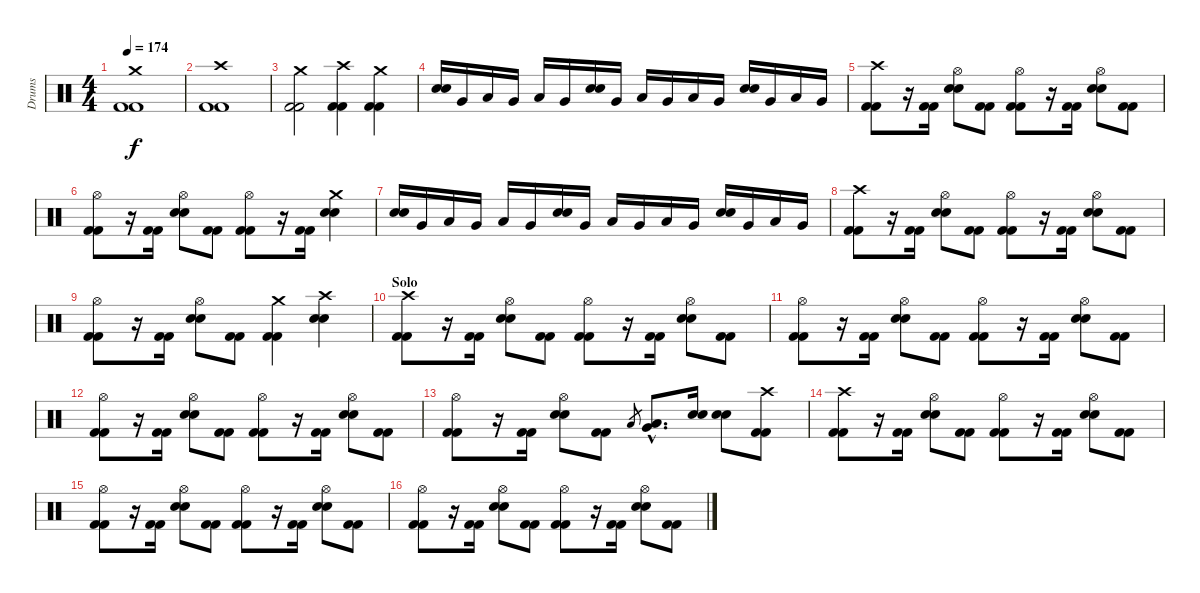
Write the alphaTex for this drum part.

\track ("Drums" "Drums") {instrument percussion}
\staff {score}
\articulation defaults
\ts (4 4)
\tempo 174
\clef neutral
\ks c
("Crash medium (hit)" "Kick (hit) 2" "Kick (hit) 2").1{dy f} |
("Crash high (hit)" "Kick (hit) 2" "Kick (hit) 2").1 |
("Crash medium (hit)" "Kick (hit) 2" "Kick (hit) 2").2 ("Crash high (hit)" "Kick (hit) 2" "Kick (hit) 2").4 ("Crash medium (hit)" "Kick (hit) 2" "Kick (hit) 2").4 |
("Snare (hit) 2" "Snare (hit) 2").16 "Very Low Tom (hit)".16 "Low Tom (hit)".16 "Very Low Tom (hit)".16 "Low Tom (hit)".16 "Very Low Tom (hit)".16 ("Snare (hit) 2" "Snare (hit) 2").16 "Very Low Tom (hit)".16 "Low Tom (hit)".16 "Very Low Tom (hit)".16 "Low Tom (hit)".16 "Very Low Tom (hit)".16 ("Snare (hit) 2" "Snare (hit) 2").16 "Very Low Tom (hit)".16 "Low Tom (hit)".16 "Very Low Tom (hit)".16 |
("Crash high (hit)" "Kick (hit) 2" "Kick (hit) 2").8 r.16 ("Kick (hit) 2" "Kick (hit) 2").16 ("Hi-Hat (open)" "Snare (hit) 2" "Snare (hit) 2").8 ("Kick (hit) 2" "Kick (hit) 2").8 ("Hi-Hat (open)" "Kick (hit) 2" "Kick (hit) 2").8 r.16 ("Kick (hit) 2" "Kick (hit) 2").16 ("Hi-Hat (open)" "Snare (hit) 2" "Snare (hit) 2").8 ("Kick (hit) 2" "Kick (hit) 2").8 |
("Hi-Hat (open)" "Kick (hit) 2" "Kick (hit) 2").8 r.16 ("Kick (hit) 2" "Kick (hit) 2").16 ("Hi-Hat (open)" "Snare (hit) 2" "Snare (hit) 2").8 ("Kick (hit) 2" "Kick (hit) 2").8 ("Hi-Hat (open)" "Kick (hit) 2" "Kick (hit) 2").8 r.16 ("Kick (hit) 2" "Kick (hit) 2").16 ("Crash medium (hit)" "Snare (hit) 2" "Snare (hit) 2").4 |
("Snare (hit) 2" "Snare (hit) 2").16 "Very Low Tom (hit)".16 "Low Tom (hit)".16 "Very Low Tom (hit)".16 "Low Tom (hit)".16 "Very Low Tom (hit)".16 ("Snare (hit) 2" "Snare (hit) 2").16 "Very Low Tom (hit)".16 "Low Tom (hit)".16 "Very Low Tom (hit)".16 "Low Tom (hit)".16 "Very Low Tom (hit)".16 ("Snare (hit) 2" "Snare (hit) 2").16 "Very Low Tom (hit)".16 "Low Tom (hit)".16 "Very Low Tom (hit)".16 |
("Crash high (hit)" "Kick (hit) 2" "Kick (hit) 2").8 r.16 ("Kick (hit) 2" "Kick (hit) 2").16 ("Hi-Hat (open)" "Snare (hit) 2" "Snare (hit) 2").8 ("Kick (hit) 2" "Kick (hit) 2").8 ("Hi-Hat (open)" "Kick (hit) 2" "Kick (hit) 2").8 r.16 ("Kick (hit) 2" "Kick (hit) 2").16 ("Hi-Hat (open)" "Snare (hit) 2" "Snare (hit) 2").8 ("Kick (hit) 2" "Kick (hit) 2").8 |
("Hi-Hat (open)" "Kick (hit) 2" "Kick (hit) 2").8 r.16 ("Kick (hit) 2" "Kick (hit) 2").16 ("Hi-Hat (open)" "Snare (hit) 2" "Snare (hit) 2").8 ("Kick (hit) 2" "Kick (hit) 2").8 ("Crash medium (hit)" "Kick (hit) 2" "Kick (hit) 2").4 ("Crash high (hit)" "Snare (hit) 2" "Snare (hit) 2").4 |
\section ("" "Solo")
("Crash high (hit)" "Kick (hit) 2" "Kick (hit) 2").8 r.16 ("Kick (hit) 2" "Kick (hit) 2").16 ("Hi-Hat (open)" "Snare (hit) 2" "Snare (hit) 2").8 ("Kick (hit) 2" "Kick (hit) 2").8 ("Hi-Hat (open)" "Kick (hit) 2" "Kick (hit) 2").8 r.16 ("Kick (hit) 2" "Kick (hit) 2").16 ("Hi-Hat (open)" "Snare (hit) 2" "Snare (hit) 2").8 ("Kick (hit) 2" "Kick (hit) 2").8 |
("Hi-Hat (open)" "Kick (hit) 2" "Kick (hit) 2").8 r.16 ("Kick (hit) 2" "Kick (hit) 2").16 ("Hi-Hat (open)" "Snare (hit) 2" "Snare (hit) 2").8 ("Kick (hit) 2" "Kick (hit) 2").8 ("Hi-Hat (open)" "Kick (hit) 2" "Kick (hit) 2").8 r.16 ("Kick (hit) 2" "Kick (hit) 2").16 ("Hi-Hat (open)" "Snare (hit) 2" "Snare (hit) 2").8 ("Kick (hit) 2" "Kick (hit) 2").8 |
("Hi-Hat (open)" "Kick (hit) 2" "Kick (hit) 2").8 r.16 ("Kick (hit) 2" "Kick (hit) 2").16 ("Hi-Hat (open)" "Snare (hit) 2" "Snare (hit) 2").8 ("Kick (hit) 2" "Kick (hit) 2").8 ("Hi-Hat (open)" "Kick (hit) 2" "Kick (hit) 2").8 r.16 ("Kick (hit) 2" "Kick (hit) 2").16 ("Hi-Hat (open)" "Snare (hit) 2" "Snare (hit) 2").8 ("Kick (hit) 2" "Kick (hit) 2").8 |
("Hi-Hat (open)" "Kick (hit) 2" "Kick (hit) 2").8 r.16 ("Kick (hit) 2" "Kick (hit) 2").16 ("Hi-Hat (open)" "Snare (hit) 2" "Snare (hit) 2").8 ("Kick (hit) 2" "Kick (hit) 2").8 "Low Tom (hit)".8{gr} ("Low Tom (hit)"{hac} "Very Low Tom (hit)"{hac}).8{d} ("Snare (hit) 2" "Snare (hit) 2").16 ("Snare (hit) 2" "Snare (hit) 2").8 ("Crash high (hit)" "Kick (hit) 2" "Kick (hit) 2").8 |
("Crash high (hit)" "Kick (hit) 2" "Kick (hit) 2").8 r.16 ("Kick (hit) 2" "Kick (hit) 2").16 ("Hi-Hat (open)" "Snare (hit) 2" "Snare (hit) 2").8 ("Kick (hit) 2" "Kick (hit) 2").8 ("Hi-Hat (open)" "Kick (hit) 2" "Kick (hit) 2").8 r.16 ("Kick (hit) 2" "Kick (hit) 2").16 ("Hi-Hat (open)" "Snare (hit) 2" "Snare (hit) 2").8 ("Kick (hit) 2" "Kick (hit) 2").8 |
("Hi-Hat (open)" "Kick (hit) 2" "Kick (hit) 2").8 r.16 ("Kick (hit) 2" "Kick (hit) 2").16 ("Hi-Hat (open)" "Snare (hit) 2" "Snare (hit) 2").8 ("Kick (hit) 2" "Kick (hit) 2").8 ("Hi-Hat (open)" "Kick (hit) 2" "Kick (hit) 2").8 r.16 ("Kick (hit) 2" "Kick (hit) 2").16 ("Hi-Hat (open)" "Snare (hit) 2" "Snare (hit) 2").8 ("Kick (hit) 2" "Kick (hit) 2").8 |
("Hi-Hat (open)" "Kick (hit) 2" "Kick (hit) 2").8 r.16 ("Kick (hit) 2" "Kick (hit) 2").16 ("Hi-Hat (open)" "Snare (hit) 2" "Snare (hit) 2").8 ("Kick (hit) 2" "Kick (hit) 2").8 ("Hi-Hat (open)" "Kick (hit) 2" "Kick (hit) 2").8 r.16 ("Kick (hit) 2" "Kick (hit) 2").16 ("Hi-Hat (open)" "Snare (hit) 2" "Snare (hit) 2").8 ("Kick (hit) 2" "Kick (hit) 2").8
